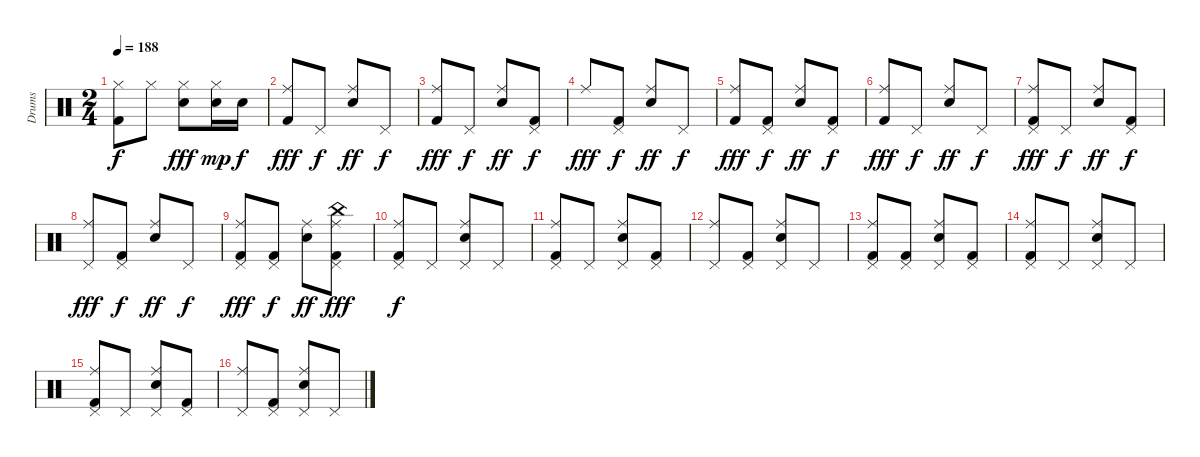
\track ("Drums" "Drums") {instrument percussion}
\staff {score}
\articulation defaults
\ts (2 4)
\tempo 188
\clef neutral
\ks c
("Hi-Hat (closed)" "Kick (hit) 2").8{dy f} "Hi-Hat (closed)".8 ("Hi-Hat (closed)" "Snare (hit) 2").8{dy fff} ("Hi-Hat (closed)" "Snare (hit) 2").16{dy mp} "Snare (hit) 2".16{dy f} |
("Ride (middle)" "Kick (hit) 2").8{dy fff} "Pedal Hi-Hat (hit)".8{dy f} ("Ride (middle)" "Snare (hit) 2").8{dy ff} "Pedal Hi-Hat (hit)".8{dy f} |
("Ride (middle)" "Kick (hit) 2").8{dy fff} "Pedal Hi-Hat (hit)".8{dy f} ("Ride (middle)" "Snare (hit) 2").8{dy ff} ("Pedal Hi-Hat (hit)" "Kick (hit) 2").8{dy f} |
"Ride (middle)".8{dy fff} ("Pedal Hi-Hat (hit)" "Kick (hit) 2").8{dy f} ("Ride (middle)" "Snare (hit) 2").8{dy ff} "Pedal Hi-Hat (hit)".8{dy f} |
("Ride (middle)" "Kick (hit) 2").8{dy fff} ("Pedal Hi-Hat (hit)" "Kick (hit) 2").8{dy f} ("Ride (middle)" "Snare (hit) 2").8{dy ff} ("Pedal Hi-Hat (hit)" "Kick (hit) 2").8{dy f} |
("Ride (middle)" "Kick (hit) 2").8{dy fff} "Pedal Hi-Hat (hit)".8{dy f} ("Ride (middle)" "Snare (hit) 2").8{dy ff} "Pedal Hi-Hat (hit)".8{dy f} |
("Ride (middle)" "Pedal Hi-Hat (hit)" "Kick (hit) 2").8{dy fff} "Pedal Hi-Hat (hit)".8{dy f} ("Ride (middle)" "Snare (hit) 2").8{dy ff} ("Pedal Hi-Hat (hit)" "Kick (hit) 2").8{dy f} |
("Ride (middle)" "Pedal Hi-Hat (hit)").8{dy fff} ("Pedal Hi-Hat (hit)" "Kick (hit) 2").8{dy f} ("Ride (middle)" "Snare (hit) 2").8{dy ff} "Pedal Hi-Hat (hit)".8{dy f} |
("Ride (middle)" "Pedal Hi-Hat (hit)" "Kick (hit) 2").8{dy fff} ("Pedal Hi-Hat (hit)" "Kick (hit) 2").8{dy f} ("Ride (middle)" "Snare (hit) 2").8{dy ff} ("Ride (middle)" "China (hit)" "Pedal Hi-Hat (hit)" "Kick (hit) 2").8{dy fff} |
("Ride (middle)" "Pedal Hi-Hat (hit)" "Kick (hit) 2").8{dy f} "Pedal Hi-Hat (hit)".8 ("Ride (middle)" "Pedal Hi-Hat (hit)" "Snare (hit) 2").8 "Pedal Hi-Hat (hit)".8 |
("Ride (middle)" "Pedal Hi-Hat (hit)" "Kick (hit) 2").8 "Pedal Hi-Hat (hit)".8 ("Ride (middle)" "Pedal Hi-Hat (hit)" "Snare (hit) 2").8 ("Pedal Hi-Hat (hit)" "Kick (hit) 2").8 |
("Ride (middle)" "Pedal Hi-Hat (hit)").8 ("Pedal Hi-Hat (hit)" "Kick (hit) 2").8 ("Ride (middle)" "Pedal Hi-Hat (hit)" "Snare (hit) 2").8 "Pedal Hi-Hat (hit)".8 |
("Ride (middle)" "Pedal Hi-Hat (hit)" "Kick (hit) 2").8 ("Pedal Hi-Hat (hit)" "Kick (hit) 2").8 ("Ride (middle)" "Pedal Hi-Hat (hit)" "Snare (hit) 2").8 ("Pedal Hi-Hat (hit)" "Kick (hit) 2").8 |
("Ride (middle)" "Pedal Hi-Hat (hit)" "Kick (hit) 2").8 "Pedal Hi-Hat (hit)".8 ("Ride (middle)" "Pedal Hi-Hat (hit)" "Snare (hit) 2").8 "Pedal Hi-Hat (hit)".8 |
("Ride (middle)" "Pedal Hi-Hat (hit)" "Kick (hit) 2").8 "Pedal Hi-Hat (hit)".8 ("Ride (middle)" "Pedal Hi-Hat (hit)" "Snare (hit) 2").8 ("Pedal Hi-Hat (hit)" "Kick (hit) 2").8 |
("Ride (middle)" "Pedal Hi-Hat (hit)").8 ("Pedal Hi-Hat (hit)" "Kick (hit) 2").8 ("Ride (middle)" "Pedal Hi-Hat (hit)" "Snare (hit) 2").8 "Pedal Hi-Hat (hit)".8
